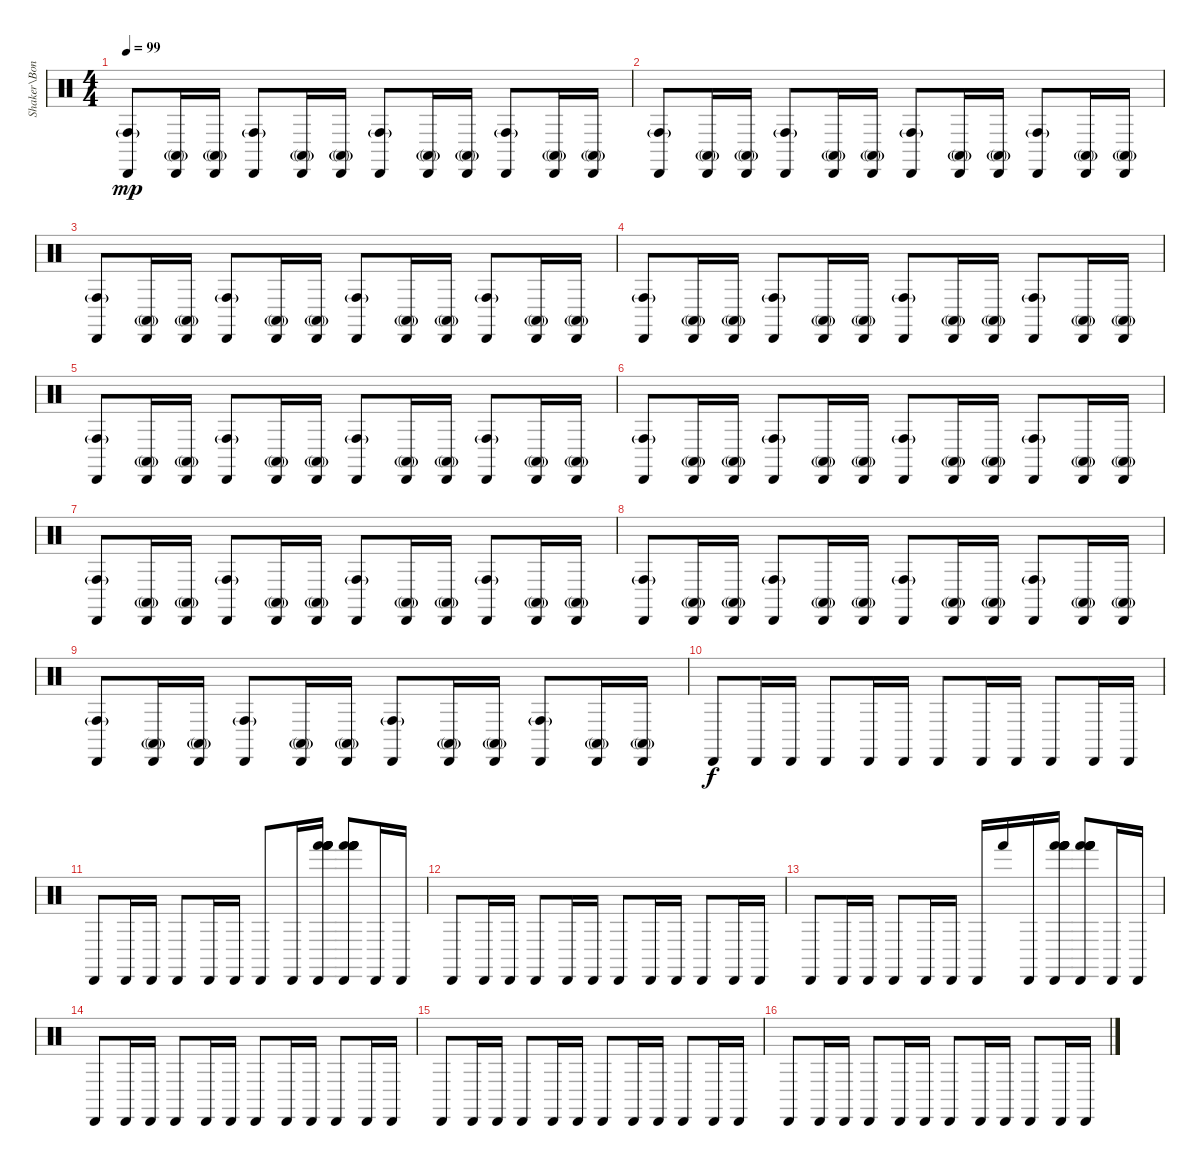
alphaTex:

\track ("Shaker\\Bongos" "Shaker\\Bon") {instrument percussion}
\staff {score}
\articulation defaults
\ts (4 4)
\tempo 99
\clef neutral
\ks c
("Cabasa (hit)" "Conga high (hit)"{g}).8{dy mp} ("Cabasa (hit)" "Conga high (mute)"{g}).16 ("Cabasa (hit)" "Conga high (mute)"{g}).16 ("Cabasa (hit)" "Conga high (hit)"{g}).8 ("Cabasa (hit)" "Conga high (mute)"{g}).16 ("Cabasa (hit)" "Conga high (mute)"{g}).16 ("Cabasa (hit)" "Conga high (hit)"{g}).8 ("Cabasa (hit)" "Conga high (mute)"{g}).16 ("Cabasa (hit)" "Conga high (mute)"{g}).16 ("Cabasa (hit)" "Conga high (hit)"{g}).8 ("Cabasa (hit)" "Conga high (mute)"{g}).16 ("Cabasa (hit)" "Conga high (mute)"{g}).16 |
("Cabasa (hit)" "Conga high (hit)"{g}).8 ("Cabasa (hit)" "Conga high (mute)"{g}).16 ("Cabasa (hit)" "Conga high (mute)"{g}).16 ("Cabasa (hit)" "Conga high (hit)"{g}).8 ("Cabasa (hit)" "Conga high (mute)"{g}).16 ("Cabasa (hit)" "Conga high (mute)"{g}).16 ("Cabasa (hit)" "Conga high (hit)"{g}).8 ("Cabasa (hit)" "Conga high (mute)"{g}).16 ("Cabasa (hit)" "Conga high (mute)"{g}).16 ("Cabasa (hit)" "Conga high (hit)"{g}).8 ("Cabasa (hit)" "Conga high (mute)"{g}).16 ("Cabasa (hit)" "Conga high (mute)"{g}).16 |
("Cabasa (hit)" "Conga high (hit)"{g}).8 ("Cabasa (hit)" "Conga high (mute)"{g}).16 ("Cabasa (hit)" "Conga high (mute)"{g}).16 ("Cabasa (hit)" "Conga high (hit)"{g}).8 ("Cabasa (hit)" "Conga high (mute)"{g}).16 ("Cabasa (hit)" "Conga high (mute)"{g}).16 ("Cabasa (hit)" "Conga high (hit)"{g}).8 ("Cabasa (hit)" "Conga high (mute)"{g}).16 ("Cabasa (hit)" "Conga high (mute)"{g}).16 ("Cabasa (hit)" "Conga high (hit)"{g}).8 ("Cabasa (hit)" "Conga high (mute)"{g}).16 ("Cabasa (hit)" "Conga high (mute)"{g}).16 |
("Cabasa (hit)" "Conga high (hit)"{g}).8 ("Cabasa (hit)" "Conga high (mute)"{g}).16 ("Cabasa (hit)" "Conga high (mute)"{g}).16 ("Cabasa (hit)" "Conga high (hit)"{g}).8 ("Cabasa (hit)" "Conga high (mute)"{g}).16 ("Cabasa (hit)" "Conga high (mute)"{g}).16 ("Cabasa (hit)" "Conga high (hit)"{g}).8 ("Cabasa (hit)" "Conga high (mute)"{g}).16 ("Cabasa (hit)" "Conga high (mute)"{g}).16 ("Cabasa (hit)" "Conga high (hit)"{g}).8 ("Cabasa (hit)" "Conga high (mute)"{g}).16 ("Cabasa (hit)" "Conga high (mute)"{g}).16 |
("Cabasa (hit)" "Conga high (hit)"{g}).8 ("Cabasa (hit)" "Conga high (mute)"{g}).16 ("Cabasa (hit)" "Conga high (mute)"{g}).16 ("Cabasa (hit)" "Conga high (hit)"{g}).8 ("Cabasa (hit)" "Conga high (mute)"{g}).16 ("Cabasa (hit)" "Conga high (mute)"{g}).16 ("Cabasa (hit)" "Conga high (hit)"{g}).8 ("Cabasa (hit)" "Conga high (mute)"{g}).16 ("Cabasa (hit)" "Conga high (mute)"{g}).16 ("Cabasa (hit)" "Conga high (hit)"{g}).8 ("Cabasa (hit)" "Conga high (mute)"{g}).16 ("Cabasa (hit)" "Conga high (mute)"{g}).16 |
("Cabasa (hit)" "Conga high (hit)"{g}).8 ("Cabasa (hit)" "Conga high (mute)"{g}).16 ("Cabasa (hit)" "Conga high (mute)"{g}).16 ("Cabasa (hit)" "Conga high (hit)"{g}).8 ("Cabasa (hit)" "Conga high (mute)"{g}).16 ("Cabasa (hit)" "Conga high (mute)"{g}).16 ("Cabasa (hit)" "Conga high (hit)"{g}).8 ("Cabasa (hit)" "Conga high (mute)"{g}).16 ("Cabasa (hit)" "Conga high (mute)"{g}).16 ("Cabasa (hit)" "Conga high (hit)"{g}).8 ("Cabasa (hit)" "Conga high (mute)"{g}).16 ("Cabasa (hit)" "Conga high (mute)"{g}).16 |
("Cabasa (hit)" "Conga high (hit)"{g}).8 ("Cabasa (hit)" "Conga high (mute)"{g}).16 ("Cabasa (hit)" "Conga high (mute)"{g}).16 ("Cabasa (hit)" "Conga high (hit)"{g}).8 ("Cabasa (hit)" "Conga high (mute)"{g}).16 ("Cabasa (hit)" "Conga high (mute)"{g}).16 ("Cabasa (hit)" "Conga high (hit)"{g}).8 ("Cabasa (hit)" "Conga high (mute)"{g}).16 ("Cabasa (hit)" "Conga high (mute)"{g}).16 ("Cabasa (hit)" "Conga high (hit)"{g}).8 ("Cabasa (hit)" "Conga high (mute)"{g}).16 ("Cabasa (hit)" "Conga high (mute)"{g}).16 |
("Cabasa (hit)" "Conga high (hit)"{g}).8 ("Cabasa (hit)" "Conga high (mute)"{g}).16 ("Cabasa (hit)" "Conga high (mute)"{g}).16 ("Cabasa (hit)" "Conga high (hit)"{g}).8 ("Cabasa (hit)" "Conga high (mute)"{g}).16 ("Cabasa (hit)" "Conga high (mute)"{g}).16 ("Cabasa (hit)" "Conga high (hit)"{g}).8 ("Cabasa (hit)" "Conga high (mute)"{g}).16 ("Cabasa (hit)" "Conga high (mute)"{g}).16 ("Cabasa (hit)" "Conga high (hit)"{g}).8 ("Cabasa (hit)" "Conga high (mute)"{g}).16 ("Cabasa (hit)" "Conga high (mute)"{g}).16 |
("Cabasa (hit)" "Conga high (hit)"{g}).8 ("Cabasa (hit)" "Conga high (mute)"{g}).16 ("Cabasa (hit)" "Conga high (mute)"{g}).16 ("Cabasa (hit)" "Conga high (hit)"{g}).8 ("Cabasa (hit)" "Conga high (mute)"{g}).16 ("Cabasa (hit)" "Conga high (mute)"{g}).16 ("Cabasa (hit)" "Conga high (hit)"{g}).8 ("Cabasa (hit)" "Conga high (mute)"{g}).16 ("Cabasa (hit)" "Conga high (mute)"{g}).16 ("Cabasa (hit)" "Conga high (hit)"{g}).8 ("Cabasa (hit)" "Conga high (mute)"{g}).16 ("Cabasa (hit)" "Conga high (mute)"{g}).16 |
"Cabasa (hit)".8{dy f} "Cabasa (hit)".16 "Cabasa (hit)".16 "Cabasa (hit)".8 "Cabasa (hit)".16 "Cabasa (hit)".16 "Cabasa (hit)".8 "Cabasa (hit)".16 "Cabasa (hit)".16 "Cabasa (hit)".8 "Cabasa (hit)".16 "Cabasa (hit)".16 |
"Cabasa (hit)".8 "Cabasa (hit)".16 "Cabasa (hit)".16 "Cabasa (hit)".8 "Cabasa (hit)".16 "Cabasa (hit)".16 "Cabasa (hit)".8 "Cabasa (hit)".16 ("Hand (hit)" "Hand (hit)" "Hand (hit)" "Cabasa (hit)" "Hand (hit)" "Hand (hit)").16 ("Hand (hit)" "Hand (hit)" "Hand (hit)" "Cabasa (hit)" "Hand (hit)" "Hand (hit)").8 "Cabasa (hit)".16 "Cabasa (hit)".16 |
"Cabasa (hit)".8 "Cabasa (hit)".16 "Cabasa (hit)".16 "Cabasa (hit)".8 "Cabasa (hit)".16 "Cabasa (hit)".16 "Cabasa (hit)".8 "Cabasa (hit)".16 "Cabasa (hit)".16 "Cabasa (hit)".8 "Cabasa (hit)".16 "Cabasa (hit)".16 |
"Cabasa (hit)".8 "Cabasa (hit)".16 "Cabasa (hit)".16 "Cabasa (hit)".8 "Cabasa (hit)".16 "Cabasa (hit)".16 "Cabasa (hit)".16 "Hand (hit)".16 "Cabasa (hit)".16 ("Hand (hit)" "Hand (hit)" "Hand (hit)" "Cabasa (hit)" "Hand (hit)" "Hand (hit)").16 ("Hand (hit)" "Hand (hit)" "Hand (hit)" "Cabasa (hit)" "Hand (hit)" "Hand (hit)").8 "Cabasa (hit)".16 "Cabasa (hit)".16 |
"Cabasa (hit)".8 "Cabasa (hit)".16 "Cabasa (hit)".16 "Cabasa (hit)".8 "Cabasa (hit)".16 "Cabasa (hit)".16 "Cabasa (hit)".8 "Cabasa (hit)".16 "Cabasa (hit)".16 "Cabasa (hit)".8 "Cabasa (hit)".16 "Cabasa (hit)".16 |
"Cabasa (hit)".8 "Cabasa (hit)".16 "Cabasa (hit)".16 "Cabasa (hit)".8 "Cabasa (hit)".16 "Cabasa (hit)".16 "Cabasa (hit)".8 "Cabasa (hit)".16 "Cabasa (hit)".16 "Cabasa (hit)".8 "Cabasa (hit)".16 "Cabasa (hit)".16 |
"Cabasa (hit)".8 "Cabasa (hit)".16 "Cabasa (hit)".16 "Cabasa (hit)".8 "Cabasa (hit)".16 "Cabasa (hit)".16 "Cabasa (hit)".8 "Cabasa (hit)".16 "Cabasa (hit)".16 "Cabasa (hit)".8 "Cabasa (hit)".16 "Cabasa (hit)".16
